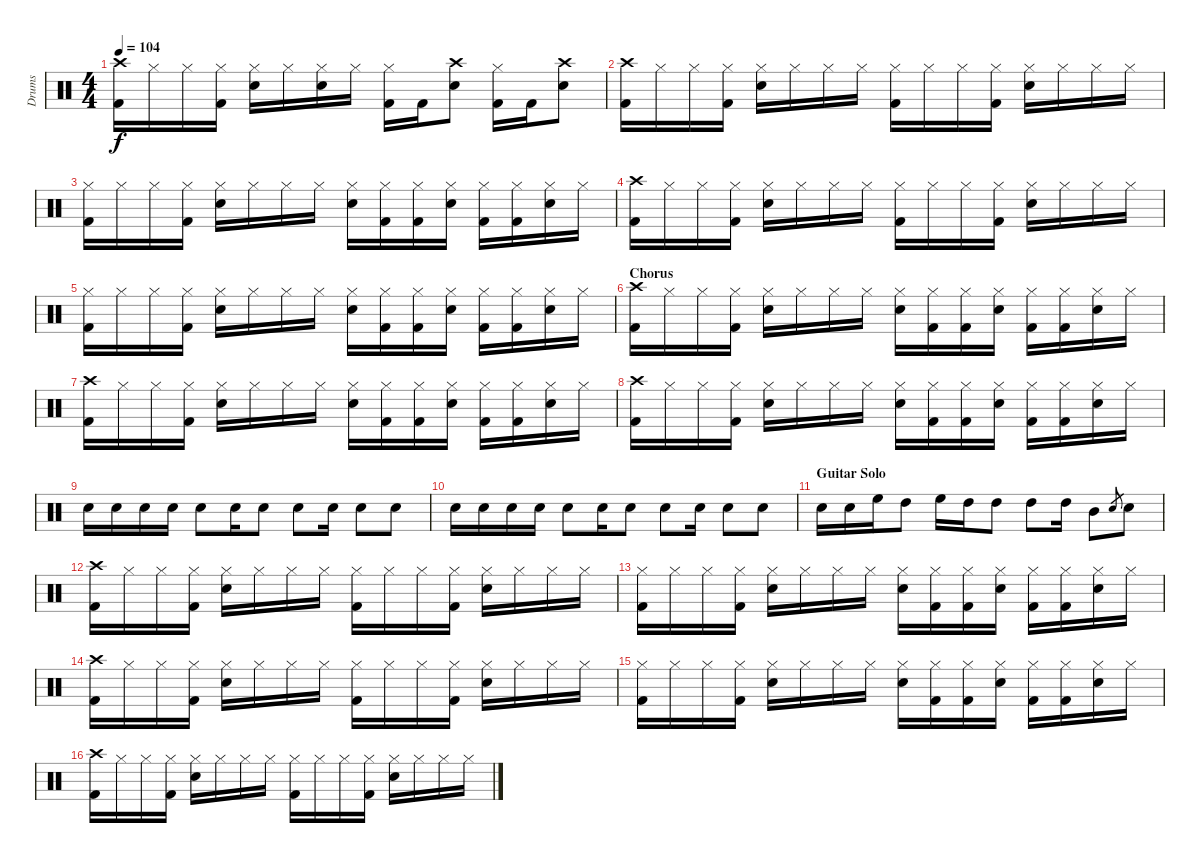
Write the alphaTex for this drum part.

\track ("Drums" "Drums") {instrument percussion}
\staff {score}
\articulation defaults
\ts (4 4)
\tempo 104
\clef neutral
\ks c
("Crash high (hit)" "Kick (hit) 2").16{dy f} "Hi-Hat (closed)".16 "Hi-Hat (closed)".16 ("Hi-Hat (closed)" "Kick (hit) 2").16 ("Hi-Hat (closed)" "Snare (hit) 2").16 "Hi-Hat (closed)".16 ("Hi-Hat (closed)" "Snare (hit) 2").16 "Hi-Hat (closed)".16 ("Hi-Hat (closed)" "Kick (hit) 2").16 "Kick (hit) 2".16 ("Crash high (hit)" "Snare (hit) 2").8 ("Hi-Hat (closed)" "Kick (hit) 2").16 "Kick (hit) 2".16 ("Crash high (hit)" "Snare (hit) 2").8 |
("Crash high (hit)" "Kick (hit) 2").16 "Hi-Hat (closed)".16 "Hi-Hat (closed)".16 ("Hi-Hat (closed)" "Kick (hit) 2").16 ("Hi-Hat (closed)" "Snare (hit) 2").16 "Hi-Hat (closed)".16 "Hi-Hat (closed)".16 "Hi-Hat (closed)".16 ("Hi-Hat (closed)" "Kick (hit) 2").16 "Hi-Hat (closed)".16 "Hi-Hat (closed)".16 ("Hi-Hat (closed)" "Kick (hit) 2").16 ("Hi-Hat (closed)" "Snare (hit) 2").16 "Hi-Hat (closed)".16 "Hi-Hat (closed)".16 "Hi-Hat (closed)".16 |
("Hi-Hat (closed)" "Kick (hit) 2").16 "Hi-Hat (closed)".16 "Hi-Hat (closed)".16 ("Hi-Hat (closed)" "Kick (hit) 2").16 ("Hi-Hat (closed)" "Snare (hit) 2").16 "Hi-Hat (closed)".16 "Hi-Hat (closed)".16 "Hi-Hat (closed)".16 ("Hi-Hat (closed)" "Snare (hit) 2").16 ("Hi-Hat (closed)" "Kick (hit) 2").16 ("Hi-Hat (closed)" "Kick (hit) 2").16 ("Hi-Hat (closed)" "Snare (hit) 2").16 ("Hi-Hat (closed)" "Kick (hit) 2").16 ("Hi-Hat (closed)" "Kick (hit) 2").16 ("Hi-Hat (closed)" "Snare (hit) 2").16 "Hi-Hat (closed)".16 |
("Crash high (hit)" "Kick (hit) 2").16 "Hi-Hat (closed)".16 "Hi-Hat (closed)".16 ("Hi-Hat (closed)" "Kick (hit) 2").16 ("Hi-Hat (closed)" "Snare (hit) 2").16 "Hi-Hat (closed)".16 "Hi-Hat (closed)".16 "Hi-Hat (closed)".16 ("Hi-Hat (closed)" "Kick (hit) 2").16 "Hi-Hat (closed)".16 "Hi-Hat (closed)".16 ("Hi-Hat (closed)" "Kick (hit) 2").16 ("Hi-Hat (closed)" "Snare (hit) 2").16 "Hi-Hat (closed)".16 "Hi-Hat (closed)".16 "Hi-Hat (closed)".16 |
("Hi-Hat (closed)" "Kick (hit) 2").16 "Hi-Hat (closed)".16 "Hi-Hat (closed)".16 ("Hi-Hat (closed)" "Kick (hit) 2").16 ("Hi-Hat (closed)" "Snare (hit) 2").16 "Hi-Hat (closed)".16 "Hi-Hat (closed)".16 "Hi-Hat (closed)".16 ("Hi-Hat (closed)" "Snare (hit) 2").16 ("Hi-Hat (closed)" "Kick (hit) 2").16 ("Hi-Hat (closed)" "Kick (hit) 2").16 ("Hi-Hat (closed)" "Snare (hit) 2").16 ("Hi-Hat (closed)" "Kick (hit) 2").16 ("Hi-Hat (closed)" "Kick (hit) 2").16 ("Hi-Hat (closed)" "Snare (hit) 2").16 "Hi-Hat (closed)".16 |
\section ("" "Chorus")
("Crash high (hit)" "Kick (hit) 2").16 "Hi-Hat (closed)".16 "Hi-Hat (closed)".16 ("Hi-Hat (closed)" "Kick (hit) 2").16 ("Hi-Hat (closed)" "Snare (hit) 2").16 "Hi-Hat (closed)".16 "Hi-Hat (closed)".16 "Hi-Hat (closed)".16 ("Hi-Hat (closed)" "Snare (hit) 2").16 ("Hi-Hat (closed)" "Kick (hit) 2").16 ("Hi-Hat (closed)" "Kick (hit) 2").16 ("Hi-Hat (closed)" "Snare (hit) 2").16 ("Hi-Hat (closed)" "Kick (hit) 2").16 ("Hi-Hat (closed)" "Kick (hit) 2").16 ("Hi-Hat (closed)" "Snare (hit) 2").16 "Hi-Hat (closed)".16 |
("Crash high (hit)" "Kick (hit) 2").16 "Hi-Hat (closed)".16 "Hi-Hat (closed)".16 ("Hi-Hat (closed)" "Kick (hit) 2").16 ("Hi-Hat (closed)" "Snare (hit) 2").16 "Hi-Hat (closed)".16 "Hi-Hat (closed)".16 "Hi-Hat (closed)".16 ("Hi-Hat (closed)" "Snare (hit) 2").16 ("Hi-Hat (closed)" "Kick (hit) 2").16 ("Hi-Hat (closed)" "Kick (hit) 2").16 ("Hi-Hat (closed)" "Snare (hit) 2").16 ("Hi-Hat (closed)" "Kick (hit) 2").16 ("Hi-Hat (closed)" "Kick (hit) 2").16 ("Hi-Hat (closed)" "Snare (hit) 2").16 "Hi-Hat (closed)".16 |
("Crash high (hit)" "Kick (hit) 2").16 "Hi-Hat (closed)".16 "Hi-Hat (closed)".16 ("Hi-Hat (closed)" "Kick (hit) 2").16 ("Hi-Hat (closed)" "Snare (hit) 2").16 "Hi-Hat (closed)".16 "Hi-Hat (closed)".16 "Hi-Hat (closed)".16 ("Hi-Hat (closed)" "Snare (hit) 2").16 ("Hi-Hat (closed)" "Kick (hit) 2").16 ("Hi-Hat (closed)" "Kick (hit) 2").16 ("Hi-Hat (closed)" "Snare (hit) 2").16 ("Hi-Hat (closed)" "Kick (hit) 2").16 ("Hi-Hat (closed)" "Kick (hit) 2").16 ("Hi-Hat (closed)" "Snare (hit) 2").16 "Hi-Hat (closed)".16 |
"Snare (hit) 2".16 "Snare (hit) 2".16 "Snare (hit) 2".16 "Snare (hit) 2".16 "Snare (hit) 2".8 "Snare (hit) 2".16 "Snare (hit) 2".8 "Snare (hit) 2".8 "Snare (hit) 2".16 "Snare (hit) 2".8 "Snare (hit) 2".8 |
"Snare (hit) 2".16 "Snare (hit) 2".16 "Snare (hit) 2".16 "Snare (hit) 2".16 "Snare (hit) 2".8 "Snare (hit) 2".16 "Snare (hit) 2".8 "Snare (hit) 2".8 "Snare (hit) 2".16 "Snare (hit) 2".8 "Snare (hit) 2".8 |
\section ("" "Guitar Solo")
"Snare (hit) 2".16 "Snare (hit) 2".16 "High Floor Tom (hit)".16 "High Tom (hit)".8 "High Floor Tom (hit)".16 "High Tom (hit)".16 "High Tom (hit)".8 "High Tom (hit)".8 "High Tom (hit)".16 "Mid Tom (hit)".8 "Snare (hit) 2".8{gr} "Snare (hit) 2".8 |
("Crash high (hit)" "Kick (hit) 2").16 "Hi-Hat (closed)".16 "Hi-Hat (closed)".16 ("Hi-Hat (closed)" "Kick (hit) 2").16 ("Hi-Hat (closed)" "Snare (hit) 2").16 "Hi-Hat (closed)".16 "Hi-Hat (closed)".16 "Hi-Hat (closed)".16 ("Hi-Hat (closed)" "Kick (hit) 2").16 "Hi-Hat (closed)".16 "Hi-Hat (closed)".16 ("Hi-Hat (closed)" "Kick (hit) 2").16 ("Hi-Hat (closed)" "Snare (hit) 2").16 "Hi-Hat (closed)".16 "Hi-Hat (closed)".16 "Hi-Hat (closed)".16 |
("Hi-Hat (closed)" "Kick (hit) 2").16 "Hi-Hat (closed)".16 "Hi-Hat (closed)".16 ("Hi-Hat (closed)" "Kick (hit) 2").16 ("Hi-Hat (closed)" "Snare (hit) 2").16 "Hi-Hat (closed)".16 "Hi-Hat (closed)".16 "Hi-Hat (closed)".16 ("Hi-Hat (closed)" "Snare (hit) 2").16 ("Hi-Hat (closed)" "Kick (hit) 2").16 ("Hi-Hat (closed)" "Kick (hit) 2").16 ("Hi-Hat (closed)" "Snare (hit) 2").16 ("Hi-Hat (closed)" "Kick (hit) 2").16 ("Hi-Hat (closed)" "Kick (hit) 2").16 ("Hi-Hat (closed)" "Snare (hit) 2").16 "Hi-Hat (closed)".16 |
("Crash high (hit)" "Kick (hit) 2").16 "Hi-Hat (closed)".16 "Hi-Hat (closed)".16 ("Hi-Hat (closed)" "Kick (hit) 2").16 ("Hi-Hat (closed)" "Snare (hit) 2").16 "Hi-Hat (closed)".16 "Hi-Hat (closed)".16 "Hi-Hat (closed)".16 ("Hi-Hat (closed)" "Kick (hit) 2").16 "Hi-Hat (closed)".16 "Hi-Hat (closed)".16 ("Hi-Hat (closed)" "Kick (hit) 2").16 ("Hi-Hat (closed)" "Snare (hit) 2").16 "Hi-Hat (closed)".16 "Hi-Hat (closed)".16 "Hi-Hat (closed)".16 |
("Hi-Hat (closed)" "Kick (hit) 2").16 "Hi-Hat (closed)".16 "Hi-Hat (closed)".16 ("Hi-Hat (closed)" "Kick (hit) 2").16 ("Hi-Hat (closed)" "Snare (hit) 2").16 "Hi-Hat (closed)".16 "Hi-Hat (closed)".16 "Hi-Hat (closed)".16 ("Hi-Hat (closed)" "Snare (hit) 2").16 ("Hi-Hat (closed)" "Kick (hit) 2").16 ("Hi-Hat (closed)" "Kick (hit) 2").16 ("Hi-Hat (closed)" "Snare (hit) 2").16 ("Hi-Hat (closed)" "Kick (hit) 2").16 ("Hi-Hat (closed)" "Kick (hit) 2").16 ("Hi-Hat (closed)" "Snare (hit) 2").16 "Hi-Hat (closed)".16 |
("Crash high (hit)" "Kick (hit) 2").16 "Hi-Hat (closed)".16 "Hi-Hat (closed)".16 ("Hi-Hat (closed)" "Kick (hit) 2").16 ("Hi-Hat (closed)" "Snare (hit) 2").16 "Hi-Hat (closed)".16 "Hi-Hat (closed)".16 "Hi-Hat (closed)".16 ("Hi-Hat (closed)" "Kick (hit) 2").16 "Hi-Hat (closed)".16 "Hi-Hat (closed)".16 ("Hi-Hat (closed)" "Kick (hit) 2").16 ("Hi-Hat (closed)" "Snare (hit) 2").16 "Hi-Hat (closed)".16 "Hi-Hat (closed)".16 "Hi-Hat (closed)".16
